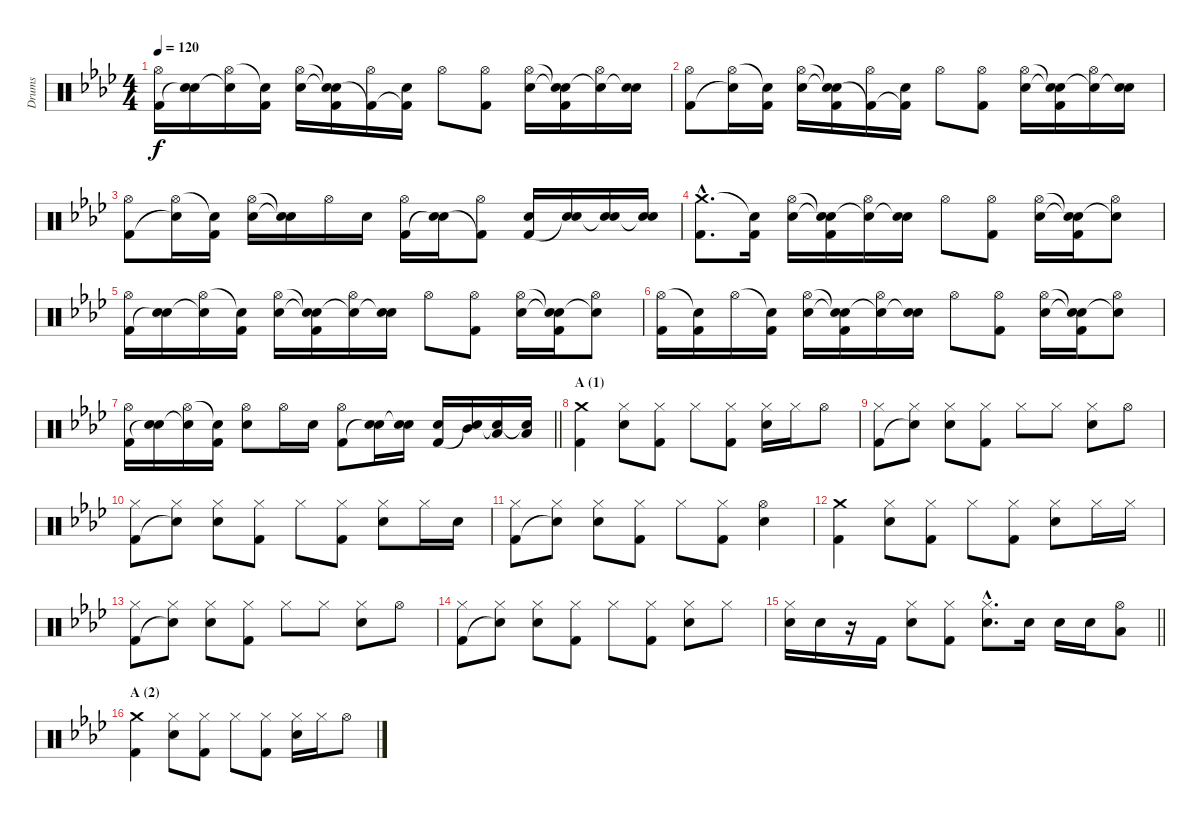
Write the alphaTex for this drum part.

\track ("Drums" "Drums") {instrument percussion}
\staff {score}
\articulation defaults
\ts (4 4)
\tempo 120
\clef neutral
\ks fminor
("Hi-Hat (open)" "Kick (hit) 2").16{dy f} ("Electric Snare (hit)" "Snare (hit)"{t}).16 ("Hi-Hat (open)" "Snare (hit)"{t}).16 ("Snare (hit)"{t} "Kick (hit) 2").16 ("Hi-Hat (open)" "Electric Snare (hit)").16 ("Snare (hit)"{t} "Snare (hit)"{t} "Kick (hit) 2").16 ("Hi-Hat (open)" "Kick (hit) 2"{t}).16 ("Electric Snare (hit)" "Kick (hit) 2"{t}).16 "Hi-Hat (open)".8 ("Hi-Hat (open)" "Kick (hit) 2").8 ("Hi-Hat (open)" "Electric Snare (hit)").16 ("Snare (hit)"{t} "Snare (hit)"{t} "Kick (hit) 2").16 ("Hi-Hat (open)" "Snare (hit)"{t}).16 ("Electric Snare (hit)" "Snare (hit)"{t}).16 |
("Hi-Hat (open)" "Kick (hit) 2").8 ("Hi-Hat (open)" "Snare (hit)"{t}).16 ("Snare (hit)"{t} "Kick (hit) 2").16 ("Hi-Hat (open)" "Electric Snare (hit)").16 ("Snare (hit)"{t} "Snare (hit)"{t} "Kick (hit) 2").16 ("Hi-Hat (open)" "Kick (hit) 2"{t}).16 ("Electric Snare (hit)" "Kick (hit) 2"{t}).16 "Hi-Hat (open)".8 ("Hi-Hat (open)" "Kick (hit) 2").8 ("Hi-Hat (open)" "Electric Snare (hit)").16 ("Snare (hit)"{t} "Snare (hit)"{t} "Kick (hit) 2").16 ("Hi-Hat (open)" "Snare (hit)"{t}).16 ("Electric Snare (hit)" "Snare (hit)"{t}).16 |
("Hi-Hat (open)" "Kick (hit) 2").8 ("Hi-Hat (open)" "Snare (hit)"{t}).16 ("Snare (hit)"{t} "Kick (hit) 2").16 ("Hi-Hat (open)" "Electric Snare (hit)").16 ("Snare (hit)"{t} "Snare (hit)"{t}).16 "Hi-Hat (open)".16 "Electric Snare (hit)".16 ("Hi-Hat (open)" "Kick (hit) 2").16 ("Electric Snare (hit)" "Snare (hit)"{t}).16 ("Hi-Hat (open)" "Kick (hit) 2"{t}).8 ("Electric Snare (hit)" "Kick (hit) 2").16 ("Electric Snare (hit)" "Snare (hit)"{t}).16 ("Electric Snare (hit)" "Snare (hit)"{t}).16 ("Electric Snare (hit)" "Snare (hit)"{t}).16 |
("Crash medium (hit)"{hac} "Kick (hit) 2"{hac}).8{d} ("Snare (hit)"{t} "Kick (hit) 2").16 ("Hi-Hat (open)" "Electric Snare (hit)").16 ("Snare (hit)"{t} "Snare (hit)"{t} "Kick (hit) 2").16 ("Hi-Hat (open)" "Snare (hit)"{t}).16 ("Electric Snare (hit)" "Snare (hit)"{t}).16 "Hi-Hat (open)".8 ("Hi-Hat (open)" "Kick (hit) 2").8 ("Hi-Hat (open)" "Electric Snare (hit)").16 ("Snare (hit)"{t} "Snare (hit)"{t} "Kick (hit) 2").16 ("Hi-Hat (open)" "Snare (hit)"{t}).8 |
("Hi-Hat (open)" "Kick (hit) 2").16 ("Electric Snare (hit)" "Snare (hit)"{t}).16 ("Hi-Hat (open)" "Snare (hit)"{t}).16 ("Snare (hit)"{t} "Kick (hit) 2").16 ("Hi-Hat (open)" "Electric Snare (hit)").16 ("Snare (hit)"{t} "Snare (hit)"{t} "Kick (hit) 2").16 ("Hi-Hat (open)" "Snare (hit)"{t}).16 ("Electric Snare (hit)" "Snare (hit)"{t}).16 "Hi-Hat (open)".8 ("Hi-Hat (open)" "Kick (hit) 2").8 ("Hi-Hat (open)" "Electric Snare (hit)").16 ("Snare (hit)"{t} "Snare (hit)"{t} "Kick (hit) 2").16 ("Hi-Hat (open)" "Snare (hit)"{t}).8 |
("Hi-Hat (open)" "Kick (hit) 2").16 ("Snare (hit)"{t} "Kick (hit) 2").16 "Hi-Hat (open)".16 ("Snare (hit)"{t} "Kick (hit) 2").16 ("Hi-Hat (open)" "Electric Snare (hit)").16 ("Snare (hit)"{t} "Snare (hit)"{t} "Kick (hit) 2").16 ("Hi-Hat (open)" "Snare (hit)"{t}).16 ("Electric Snare (hit)" "Snare (hit)"{t}).16 "Hi-Hat (open)".8 ("Hi-Hat (open)" "Kick (hit) 2").8 ("Hi-Hat (open)" "Electric Snare (hit)").16 ("Snare (hit)"{t} "Snare (hit)"{t} "Kick (hit) 2").16 ("Hi-Hat (open)" "Snare (hit)"{t}).8 |
\barLineRight lightlight
("Hi-Hat (open)" "Kick (hit) 2").16 ("Electric Snare (hit)" "Snare (hit)"{t}).16 ("Hi-Hat (open)" "Snare (hit)"{t}).16 ("Snare (hit)"{t} "Kick (hit) 2").16 ("Hi-Hat (open)" "Electric Snare (hit)").8 "Hi-Hat (open)".16 "Electric Snare (hit)".16 ("Hi-Hat (open)" "Kick (hit) 2").8 ("Electric Snare (hit)" "Snare (hit)"{t}).16 ("Electric Snare (hit)" "Snare (hit)"{t}).16 ("Electric Snare (hit)" "Kick (hit) 2").16 ("Mid Tom (hit)" "Snare (hit)"{t}).16 ("Low Tom (hit)" "Snare (hit)"{t}).16 ("Low Floor Tom (hit)" "Snare (hit)"{t}).16 |
\section ("" "A (1)")
("Crash medium (hit)" "Kick (hit) 2").4 ("Hi-Hat (closed)" "Electric Snare (hit)").8 ("Hi-Hat (closed)" "Kick (hit) 2").8 "Hi-Hat (closed)".8 ("Hi-Hat (closed)" "Kick (hit) 2").8 ("Hi-Hat (closed)" "Electric Snare (hit)").16 "Hi-Hat (closed)".16 "Hi-Hat (open)".8 |
("Hi-Hat (closed)" "Kick (hit) 2").8 ("Hi-Hat (closed)" "Snare (hit)"{t}).8 ("Hi-Hat (closed)" "Electric Snare (hit)").8 ("Hi-Hat (closed)" "Kick (hit) 2").8 "Hi-Hat (closed)".8 "Hi-Hat (closed)".8 ("Hi-Hat (closed)" "Electric Snare (hit)").8 "Hi-Hat (open)".8 |
("Hi-Hat (closed)" "Kick (hit) 2").8 ("Hi-Hat (closed)" "Snare (hit)"{t}).8 ("Hi-Hat (closed)" "Electric Snare (hit)").8 ("Hi-Hat (closed)" "Kick (hit) 2").8 "Hi-Hat (closed)".8 ("Hi-Hat (closed)" "Kick (hit) 2").8 ("Hi-Hat (closed)" "Electric Snare (hit)").8 "Hi-Hat (closed)".16 "Electric Snare (hit)".16 |
("Hi-Hat (closed)" "Kick (hit) 2").8 ("Hi-Hat (closed)" "Snare (hit)"{t}).8 ("Hi-Hat (closed)" "Electric Snare (hit)").8 ("Hi-Hat (closed)" "Kick (hit) 2").8 "Hi-Hat (closed)".8 ("Hi-Hat (closed)" "Kick (hit) 2").8 ("Hi-Hat (open)" "Electric Snare (hit)").4 |
("Crash medium (hit)" "Kick (hit) 2").4 ("Hi-Hat (closed)" "Electric Snare (hit)").8 ("Hi-Hat (closed)" "Kick (hit) 2").8 "Hi-Hat (closed)".8 ("Hi-Hat (closed)" "Kick (hit) 2").8 ("Hi-Hat (closed)" "Electric Snare (hit)").8 "Hi-Hat (closed)".16 "Hi-Hat (closed)".16 |
("Hi-Hat (closed)" "Kick (hit) 2").8 ("Hi-Hat (closed)" "Snare (hit)"{t}).8 ("Hi-Hat (closed)" "Electric Snare (hit)").8 ("Hi-Hat (closed)" "Kick (hit) 2").8 "Hi-Hat (closed)".8 "Hi-Hat (closed)".8 ("Hi-Hat (closed)" "Electric Snare (hit)").8 "Hi-Hat (open)".8 |
("Hi-Hat (closed)" "Kick (hit) 2").8 ("Hi-Hat (closed)" "Snare (hit)"{t}).8 ("Hi-Hat (closed)" "Electric Snare (hit)").8 ("Hi-Hat (closed)" "Kick (hit) 2").8 "Hi-Hat (closed)".8 ("Hi-Hat (closed)" "Kick (hit) 2").8 ("Hi-Hat (closed)" "Electric Snare (hit)").8 "Hi-Hat (closed)".8 |
\barLineRight lightlight
("Hi-Hat (closed)" "Electric Snare (hit)").16 "Electric Snare (hit)".16 r.16 "Kick (hit) 2".16 ("Hi-Hat (closed)" "Electric Snare (hit)").8 ("Hi-Hat (closed)" "Kick (hit) 2").8 ("Hi-Hat (closed)"{hac} "Electric Snare (hit)"{hac}).8{d} "Electric Snare (hit)".16 "Electric Snare (hit)".16 "Electric Snare (hit)".16 ("Hi-Hat (open)" "Low Floor Tom (hit)").8 |
\section ("" "A (2)")
("Crash medium (hit)" "Kick (hit) 2").4 ("Hi-Hat (closed)" "Electric Snare (hit)").8 ("Hi-Hat (closed)" "Kick (hit) 2").8 "Hi-Hat (closed)".8 ("Hi-Hat (closed)" "Kick (hit) 2").8 ("Hi-Hat (closed)" "Electric Snare (hit)").16 "Hi-Hat (closed)".16 "Hi-Hat (open)".8
